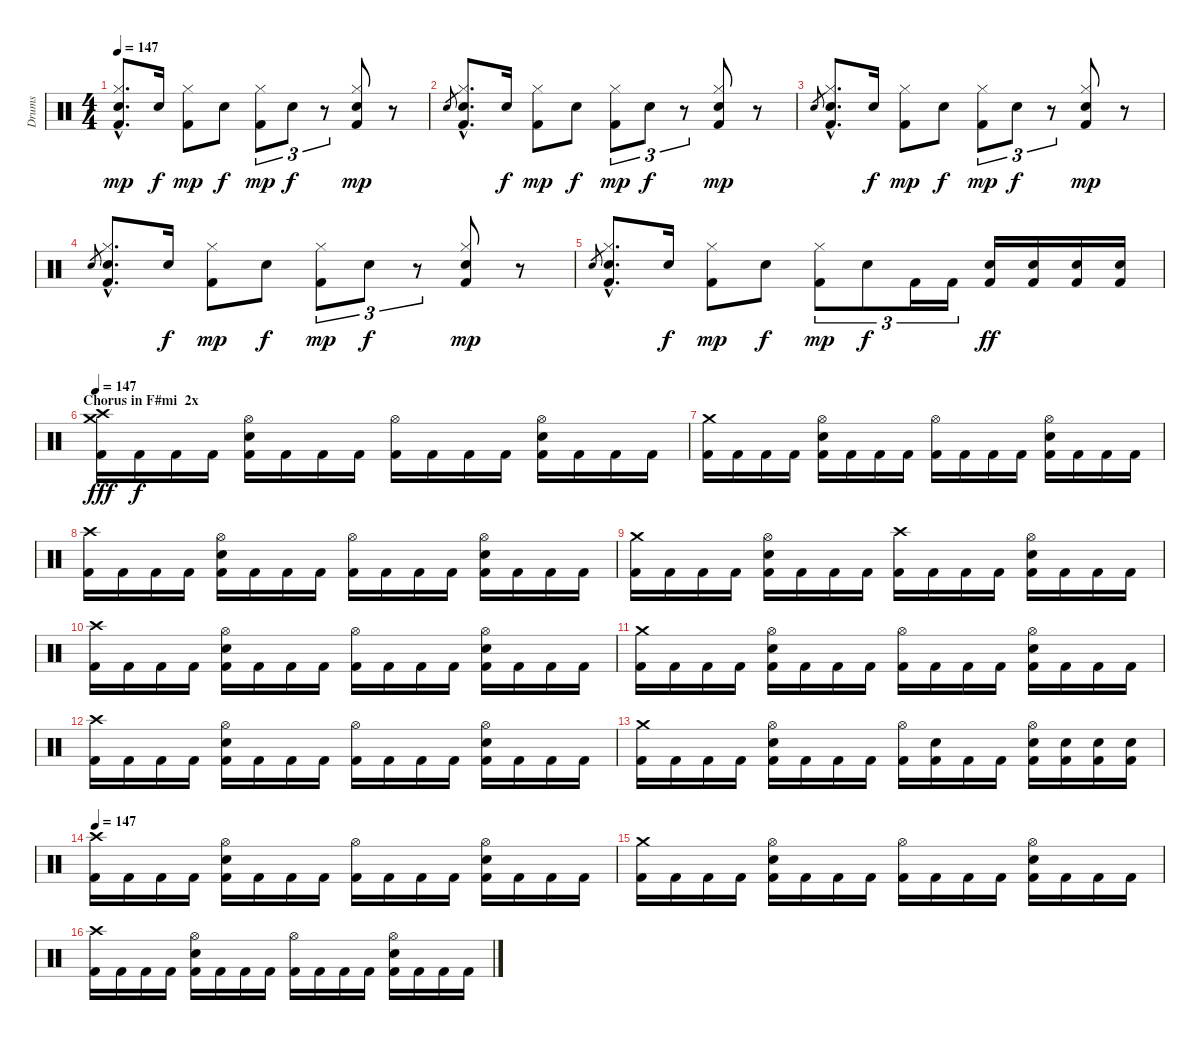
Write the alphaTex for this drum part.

\track ("Drums" "Drums") {instrument percussion}
\staff {score}
\articulation defaults
\ts (4 4)
\tempo 147
\clef neutral
\ks c
("Kick (hit) 2"{hac} "Hi-Hat (closed)"{hac} "Electric Snare (hit)"{hac}).8{d dy mp} "Electric Snare (hit)".16{dy f} ("Kick (hit) 2" "Hi-Hat (closed)").8{dy mp} "Electric Snare (hit)".8{dy f} ("Kick (hit) 2" "Hi-Hat (closed)").8{tu (3 2) dy mp} "Electric Snare (hit)".8{tu (3 2) dy f} r.8{tu (3 2)} ("Kick (hit) 2" "Hi-Hat (closed)" "Electric Snare (hit)").8{dy mp} r.8 |
"Electric Snare (hit)".8{gr} ("Kick (hit) 2"{hac} "Hi-Hat (closed)"{hac} "Electric Snare (hit)"{hac}).8{d} "Electric Snare (hit)".16{dy f} ("Kick (hit) 2" "Hi-Hat (closed)").8{dy mp} "Electric Snare (hit)".8{dy f} ("Kick (hit) 2" "Hi-Hat (closed)").8{tu (3 2) dy mp} "Electric Snare (hit)".8{tu (3 2) dy f} r.8{tu (3 2)} ("Kick (hit) 2" "Hi-Hat (closed)" "Electric Snare (hit)").8{dy mp} r.8 |
"Electric Snare (hit)".8{gr} ("Kick (hit) 2"{hac} "Hi-Hat (closed)"{hac} "Electric Snare (hit)"{hac}).8{d} "Electric Snare (hit)".16{dy f} ("Kick (hit) 2" "Hi-Hat (closed)").8{dy mp} "Electric Snare (hit)".8{dy f} ("Kick (hit) 2" "Hi-Hat (closed)").8{tu (3 2) dy mp} "Electric Snare (hit)".8{tu (3 2) dy f} r.8{tu (3 2)} ("Kick (hit) 2" "Hi-Hat (closed)" "Electric Snare (hit)").8{dy mp} r.8 |
"Electric Snare (hit)".8{gr} ("Kick (hit) 2"{hac} "Hi-Hat (closed)"{hac} "Electric Snare (hit)"{hac}).8{d} "Electric Snare (hit)".16{dy f} ("Kick (hit) 2" "Hi-Hat (closed)").8{dy mp} "Electric Snare (hit)".8{dy f} ("Kick (hit) 2" "Hi-Hat (closed)").8{tu (3 2) dy mp} "Electric Snare (hit)".8{tu (3 2) dy f} r.8{tu (3 2)} ("Kick (hit) 2" "Hi-Hat (closed)" "Electric Snare (hit)").8{dy mp} r.8 |
"Electric Snare (hit)".8{gr} ("Kick (hit) 2"{hac} "Hi-Hat (closed)"{hac} "Electric Snare (hit)"{hac}).8{d} "Electric Snare (hit)".16{dy f} ("Kick (hit) 2" "Hi-Hat (closed)").8{dy mp} "Electric Snare (hit)".8{dy f} ("Kick (hit) 2" "Hi-Hat (closed)").8{tu (3 2) dy mp} "Electric Snare (hit)".8{tu (3 2) dy f} "Kick (hit) 2".16{tu (3 2)} "Kick (hit) 2".16{tu (3 2)} ("Kick (hit) 2" "Electric Snare (hit)").16{dy ff} ("Kick (hit) 2" "Electric Snare (hit)").16 ("Kick (hit) 2" "Electric Snare (hit)").16 ("Kick (hit) 2" "Electric Snare (hit)").16 |
\section ("" "Chorus in F#mi  2x")
\tempo 147
("Kick (hit) 2" "Crash high (hit)" "Crash medium (hit)").16{dy fff} "Kick (hit) 2".16{dy f} "Kick (hit) 2".16 "Kick (hit) 2".16 ("Kick (hit) 2" "Electric Snare (hit)" "Hi-Hat (open)").16 "Kick (hit) 2".16 "Kick (hit) 2".16 "Kick (hit) 2".16 ("Kick (hit) 2" "Hi-Hat (open)").16 "Kick (hit) 2".16 "Kick (hit) 2".16 "Kick (hit) 2".16 ("Kick (hit) 2" "Electric Snare (hit)" "Hi-Hat (open)").16 "Kick (hit) 2".16 "Kick (hit) 2".16 "Kick (hit) 2".16 |
("Kick (hit) 2" "Crash medium (hit)").16 "Kick (hit) 2".16 "Kick (hit) 2".16 "Kick (hit) 2".16 ("Kick (hit) 2" "Electric Snare (hit)" "Hi-Hat (open)").16 "Kick (hit) 2".16 "Kick (hit) 2".16 "Kick (hit) 2".16 ("Kick (hit) 2" "Hi-Hat (open)").16 "Kick (hit) 2".16 "Kick (hit) 2".16 "Kick (hit) 2".16 ("Kick (hit) 2" "Electric Snare (hit)" "Hi-Hat (open)").16 "Kick (hit) 2".16 "Kick (hit) 2".16 "Kick (hit) 2".16 |
("Kick (hit) 2" "Crash high (hit)").16 "Kick (hit) 2".16 "Kick (hit) 2".16 "Kick (hit) 2".16 ("Kick (hit) 2" "Electric Snare (hit)" "Hi-Hat (open)").16 "Kick (hit) 2".16 "Kick (hit) 2".16 "Kick (hit) 2".16 ("Kick (hit) 2" "Hi-Hat (open)").16 "Kick (hit) 2".16 "Kick (hit) 2".16 "Kick (hit) 2".16 ("Kick (hit) 2" "Electric Snare (hit)" "Hi-Hat (open)").16 "Kick (hit) 2".16 "Kick (hit) 2".16 "Kick (hit) 2".16 |
("Kick (hit) 2" "Crash medium (hit)").16 "Kick (hit) 2".16 "Kick (hit) 2".16 "Kick (hit) 2".16 ("Kick (hit) 2" "Electric Snare (hit)" "Hi-Hat (open)").16 "Kick (hit) 2".16 "Kick (hit) 2".16 "Kick (hit) 2".16 ("Kick (hit) 2" "Crash high (hit)").16 "Kick (hit) 2".16 "Kick (hit) 2".16 "Kick (hit) 2".16 ("Kick (hit) 2" "Electric Snare (hit)" "Hi-Hat (open)").16 "Kick (hit) 2".16 "Kick (hit) 2".16 "Kick (hit) 2".16 |
("Kick (hit) 2" "Crash high (hit)").16 "Kick (hit) 2".16 "Kick (hit) 2".16 "Kick (hit) 2".16 ("Kick (hit) 2" "Electric Snare (hit)" "Hi-Hat (open)").16 "Kick (hit) 2".16 "Kick (hit) 2".16 "Kick (hit) 2".16 ("Kick (hit) 2" "Hi-Hat (open)").16 "Kick (hit) 2".16 "Kick (hit) 2".16 "Kick (hit) 2".16 ("Kick (hit) 2" "Electric Snare (hit)" "Hi-Hat (open)").16 "Kick (hit) 2".16 "Kick (hit) 2".16 "Kick (hit) 2".16 |
("Kick (hit) 2" "Crash medium (hit)").16 "Kick (hit) 2".16 "Kick (hit) 2".16 "Kick (hit) 2".16 ("Kick (hit) 2" "Electric Snare (hit)" "Hi-Hat (open)").16 "Kick (hit) 2".16 "Kick (hit) 2".16 "Kick (hit) 2".16 ("Kick (hit) 2" "Hi-Hat (open)").16 "Kick (hit) 2".16 "Kick (hit) 2".16 "Kick (hit) 2".16 ("Kick (hit) 2" "Electric Snare (hit)" "Hi-Hat (open)").16 "Kick (hit) 2".16 "Kick (hit) 2".16 "Kick (hit) 2".16 |
("Kick (hit) 2" "Crash high (hit)").16 "Kick (hit) 2".16 "Kick (hit) 2".16 "Kick (hit) 2".16 ("Kick (hit) 2" "Electric Snare (hit)" "Hi-Hat (open)").16 "Kick (hit) 2".16 "Kick (hit) 2".16 "Kick (hit) 2".16 ("Kick (hit) 2" "Hi-Hat (open)").16 "Kick (hit) 2".16 "Kick (hit) 2".16 "Kick (hit) 2".16 ("Kick (hit) 2" "Electric Snare (hit)" "Hi-Hat (open)").16 "Kick (hit) 2".16 "Kick (hit) 2".16 "Kick (hit) 2".16 |
("Kick (hit) 2" "Crash medium (hit)").16 "Kick (hit) 2".16 "Kick (hit) 2".16 "Kick (hit) 2".16 ("Kick (hit) 2" "Electric Snare (hit)" "Hi-Hat (open)").16 "Kick (hit) 2".16 "Kick (hit) 2".16 "Kick (hit) 2".16 ("Kick (hit) 2" "Hi-Hat (open)").16 ("Kick (hit) 2" "Electric Snare (hit)").16 "Kick (hit) 2".16 "Kick (hit) 2".16 ("Kick (hit) 2" "Electric Snare (hit)" "Hi-Hat (open)").16 ("Kick (hit) 2" "Electric Snare (hit)").16 ("Kick (hit) 2" "Electric Snare (hit)").16 ("Kick (hit) 2" "Electric Snare (hit)").16 |
\tempo 147
("Kick (hit) 2" "Crash high (hit)").16 "Kick (hit) 2".16 "Kick (hit) 2".16 "Kick (hit) 2".16 ("Kick (hit) 2" "Electric Snare (hit)" "Hi-Hat (open)").16 "Kick (hit) 2".16 "Kick (hit) 2".16 "Kick (hit) 2".16 ("Kick (hit) 2" "Hi-Hat (open)").16 "Kick (hit) 2".16 "Kick (hit) 2".16 "Kick (hit) 2".16 ("Kick (hit) 2" "Electric Snare (hit)" "Hi-Hat (open)").16 "Kick (hit) 2".16 "Kick (hit) 2".16 "Kick (hit) 2".16 |
("Kick (hit) 2" "Crash medium (hit)").16 "Kick (hit) 2".16 "Kick (hit) 2".16 "Kick (hit) 2".16 ("Kick (hit) 2" "Electric Snare (hit)" "Hi-Hat (open)").16 "Kick (hit) 2".16 "Kick (hit) 2".16 "Kick (hit) 2".16 ("Kick (hit) 2" "Hi-Hat (open)").16 "Kick (hit) 2".16 "Kick (hit) 2".16 "Kick (hit) 2".16 ("Kick (hit) 2" "Electric Snare (hit)" "Hi-Hat (open)").16 "Kick (hit) 2".16 "Kick (hit) 2".16 "Kick (hit) 2".16 |
("Kick (hit) 2" "Crash high (hit)").16 "Kick (hit) 2".16 "Kick (hit) 2".16 "Kick (hit) 2".16 ("Kick (hit) 2" "Electric Snare (hit)" "Hi-Hat (open)").16 "Kick (hit) 2".16 "Kick (hit) 2".16 "Kick (hit) 2".16 ("Kick (hit) 2" "Hi-Hat (open)").16 "Kick (hit) 2".16 "Kick (hit) 2".16 "Kick (hit) 2".16 ("Kick (hit) 2" "Electric Snare (hit)" "Hi-Hat (open)").16 "Kick (hit) 2".16 "Kick (hit) 2".16 "Kick (hit) 2".16
